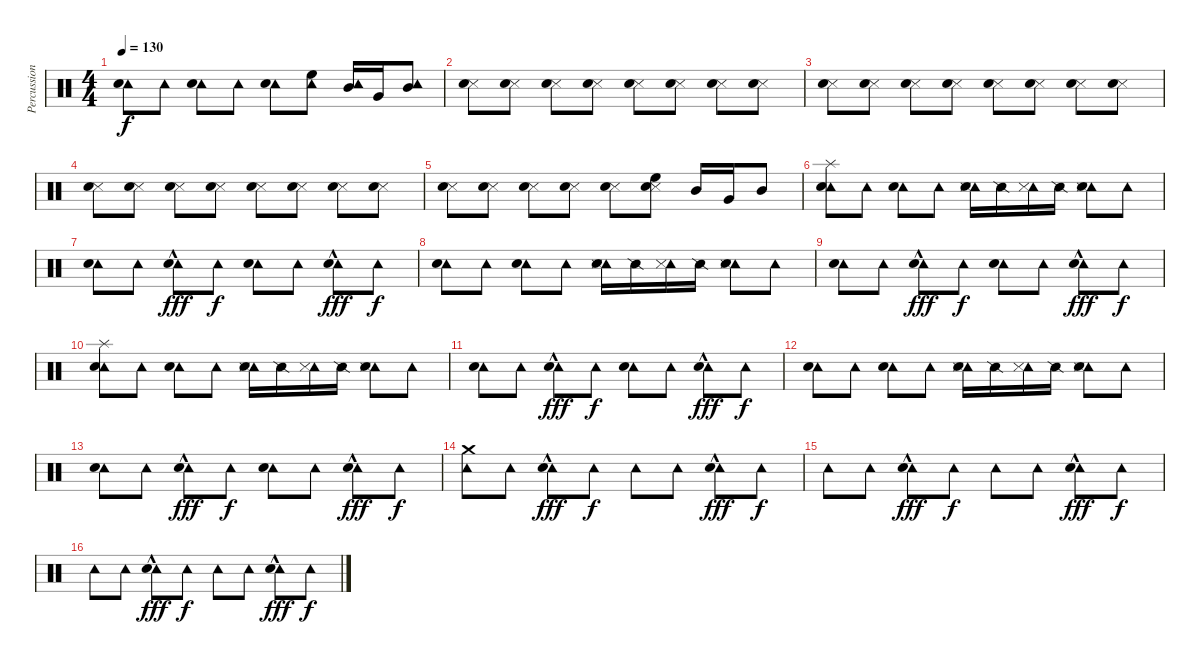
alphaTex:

\track ("Percussion" "Percussion") {instrument percussion}
\staff {score}
\articulation defaults
\ts (4 4)
\tempo 130
\clef neutral
\ks c
("Tambourine (hit)" "Snare (hit) 2").8{dy f} "Tambourine (hit)".8 ("Tambourine (hit)" "Snare (hit) 2").8 "Tambourine (hit)".8 ("Tambourine (hit)" "Snare (hit) 2").8 ("Tambourine (hit)" "High Floor Tom (hit)").8 ("Tambourine (hit)" "Mid Tom (hit)").16 "Very Low Tom (hit)".16 ("Tambourine (hit)" "Mid Tom (hit)").8 |
("Snare (side stick) 3" "Snare (hit) 2").8 ("Snare (side stick) 3" "Snare (hit) 2").8 ("Snare (side stick) 3" "Snare (hit) 2").8 ("Snare (side stick) 3" "Snare (hit) 2").8 ("Snare (side stick) 3" "Snare (hit) 2").8 ("Snare (side stick) 3" "Snare (hit) 2").8 ("Snare (side stick) 3" "Snare (hit) 2").8 ("Snare (side stick) 3" "Snare (hit) 2").8 |
("Snare (side stick) 3" "Snare (hit) 2").8 ("Snare (side stick) 3" "Snare (hit) 2").8 ("Snare (side stick) 3" "Snare (hit) 2").8 ("Snare (side stick) 3" "Snare (hit) 2").8 ("Snare (side stick) 3" "Snare (hit) 2").8 ("Snare (side stick) 3" "Snare (hit) 2").8 ("Snare (side stick) 3" "Snare (hit) 2").8 ("Snare (side stick) 3" "Snare (hit) 2").8 |
("Snare (side stick) 3" "Snare (hit) 2").8 ("Snare (side stick) 3" "Snare (hit) 2").8 ("Snare (side stick) 3" "Snare (hit) 2").8 ("Snare (side stick) 3" "Snare (hit) 2").8 ("Snare (side stick) 3" "Snare (hit) 2").8 ("Snare (side stick) 3" "Snare (hit) 2").8 ("Snare (side stick) 3" "Snare (hit) 2").8 ("Snare (side stick) 3" "Snare (hit) 2").8 |
("Snare (side stick) 3" "Snare (hit) 2").8 ("Snare (side stick) 3" "Snare (hit) 2").8 ("Snare (side stick) 3" "Snare (hit) 2").8 ("Snare (side stick) 3" "Snare (hit) 2").8 ("Snare (side stick) 3" "Snare (hit) 2").8 ("Snare (side stick) 3" "Snare (hit) 2" "High Floor Tom (hit)").8 "Mid Tom (hit)".16 "Very Low Tom (hit)".16 "Mid Tom (hit)".8 |
("Splash (hit)" "Tambourine (hit)" "Snare (hit) 2").8 "Tambourine (hit)".8 ("Tambourine (hit)" "Snare (hit) 2").8 "Tambourine (hit)".8 ("Tambourine (hit)" "Snare (side stick) 3" "Snare (hit) 2").16 "Snare (side stick) 2".16 ("Tambourine (hit)" "Snare (side stick) 3").16 "Snare (side stick) 2".16 ("Tambourine (hit)" "Snare (side stick) 3" "Snare (hit) 2").8 "Tambourine (hit)".8 |
("Tambourine (hit)" "Snare (hit) 2").8 "Tambourine (hit)".8 ("Tambourine (hit)"{hac} "Snare (hit) 2").8{dy fff} "Tambourine (hit)".8{dy f} ("Tambourine (hit)" "Snare (hit) 2").8 "Tambourine (hit)".8 ("Tambourine (hit)"{hac} "Snare (hit) 2").8{dy fff} "Tambourine (hit)".8{dy f} |
("Tambourine (hit)" "Snare (hit) 2").8 "Tambourine (hit)".8 ("Tambourine (hit)" "Snare (hit) 2").8 "Tambourine (hit)".8 ("Tambourine (hit)" "Snare (side stick) 3" "Snare (hit) 2").16 "Snare (side stick) 2".16 ("Tambourine (hit)" "Snare (side stick) 3").16 "Snare (side stick) 2".16 ("Tambourine (hit)" "Snare (side stick) 3" "Snare (hit) 2").8 "Tambourine (hit)".8 |
("Tambourine (hit)" "Snare (hit) 2").8 "Tambourine (hit)".8 ("Tambourine (hit)"{hac} "Snare (hit) 2").8{dy fff} "Tambourine (hit)".8{dy f} ("Tambourine (hit)" "Snare (hit) 2").8 "Tambourine (hit)".8 ("Tambourine (hit)"{hac} "Snare (hit) 2").8{dy fff} "Tambourine (hit)".8{dy f} |
("Splash (hit)" "Tambourine (hit)" "Snare (hit) 2").8 "Tambourine (hit)".8 ("Tambourine (hit)" "Snare (hit) 2").8 "Tambourine (hit)".8 ("Tambourine (hit)" "Snare (side stick) 3" "Snare (hit) 2").16 "Snare (side stick) 2".16 ("Tambourine (hit)" "Snare (side stick) 3").16 "Snare (side stick) 2".16 ("Tambourine (hit)" "Snare (side stick) 3" "Snare (hit) 2").8 "Tambourine (hit)".8 |
("Tambourine (hit)" "Snare (hit) 2").8 "Tambourine (hit)".8 ("Tambourine (hit)"{hac} "Snare (hit) 2").8{dy fff} "Tambourine (hit)".8{dy f} ("Tambourine (hit)" "Snare (hit) 2").8 "Tambourine (hit)".8 ("Tambourine (hit)"{hac} "Snare (hit) 2").8{dy fff} "Tambourine (hit)".8{dy f} |
("Tambourine (hit)" "Snare (hit) 2").8 "Tambourine (hit)".8 ("Tambourine (hit)" "Snare (hit) 2").8 "Tambourine (hit)".8 ("Tambourine (hit)" "Snare (side stick) 3" "Snare (hit) 2").16 "Snare (side stick) 2".16 ("Tambourine (hit)" "Snare (side stick) 3").16 "Snare (side stick) 2".16 ("Tambourine (hit)" "Snare (side stick) 3" "Snare (hit) 2").8 "Tambourine (hit)".8 |
("Tambourine (hit)" "Snare (hit) 2").8 "Tambourine (hit)".8 ("Tambourine (hit)"{hac} "Snare (hit) 2").8{dy fff} "Tambourine (hit)".8{dy f} ("Tambourine (hit)" "Snare (hit) 2").8 "Tambourine (hit)".8 ("Tambourine (hit)"{hac} "Snare (hit) 2").8{dy fff} "Tambourine (hit)".8{dy f} |
("Crash medium (hit)" "Tambourine (hit)").8 "Tambourine (hit)".8 ("Tambourine (hit)"{hac} "Snare (hit) 2").8{dy fff} "Tambourine (hit)".8{dy f} "Tambourine (hit)".8 "Tambourine (hit)".8 ("Tambourine (hit)"{hac} "Snare (hit) 2").8{dy fff} "Tambourine (hit)".8{dy f} |
"Tambourine (hit)".8 "Tambourine (hit)".8 ("Tambourine (hit)"{hac} "Snare (hit) 2").8{dy fff} "Tambourine (hit)".8{dy f} "Tambourine (hit)".8 "Tambourine (hit)".8 ("Tambourine (hit)"{hac} "Snare (hit) 2").8{dy fff} "Tambourine (hit)".8{dy f} |
"Tambourine (hit)".8 "Tambourine (hit)".8 ("Tambourine (hit)"{hac} "Snare (hit) 2").8{dy fff} "Tambourine (hit)".8{dy f} "Tambourine (hit)".8 "Tambourine (hit)".8 ("Tambourine (hit)"{hac} "Snare (hit) 2").8{dy fff} "Tambourine (hit)".8{dy f}
